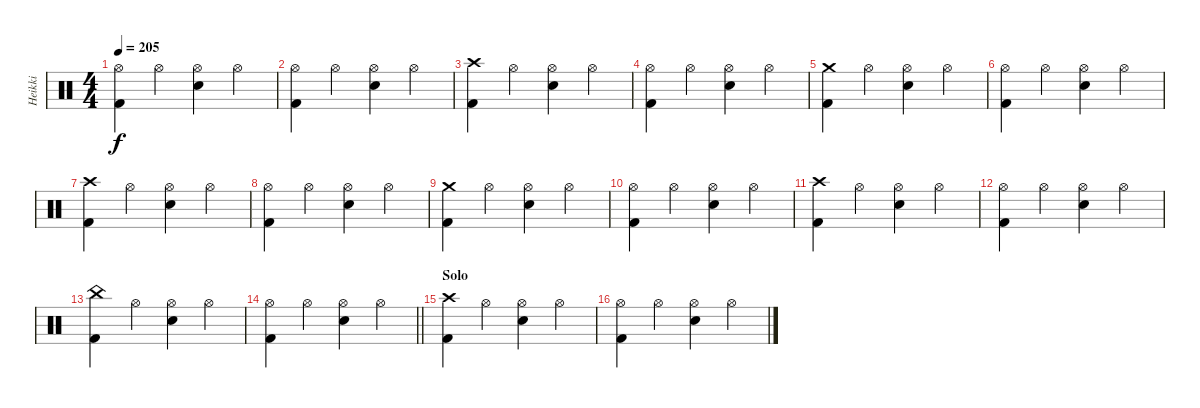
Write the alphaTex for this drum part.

\track ("Heikki" "Heikki") {instrument percussion}
\staff {score}
\articulation defaults
\ts (4 4)
\tempo 205
\clef neutral
\ks c
("Hi-Hat (open)" "Kick (hit) 2").4{dy f} "Hi-Hat (open)".4 ("Hi-Hat (open)" "Electric Snare (hit)").4 "Hi-Hat (open)".4 |
("Hi-Hat (open)" "Kick (hit) 2").4 "Hi-Hat (open)".4 ("Hi-Hat (open)" "Electric Snare (hit)").4 "Hi-Hat (open)".4 |
("Crash high (hit)" "Kick (hit) 2").4 "Hi-Hat (open)".4 ("Hi-Hat (open)" "Electric Snare (hit)").4 "Hi-Hat (open)".4 |
("Hi-Hat (open)" "Kick (hit) 2").4 "Hi-Hat (open)".4 ("Hi-Hat (open)" "Electric Snare (hit)").4 "Hi-Hat (open)".4 |
("Crash medium (hit)" "Kick (hit) 2").4 "Hi-Hat (open)".4 ("Hi-Hat (open)" "Electric Snare (hit)").4 "Hi-Hat (open)".4 |
("Hi-Hat (open)" "Kick (hit) 2").4 "Hi-Hat (open)".4 ("Hi-Hat (open)" "Electric Snare (hit)").4 "Hi-Hat (open)".4 |
("Crash high (hit)" "Kick (hit) 2").4 "Hi-Hat (open)".4 ("Hi-Hat (open)" "Electric Snare (hit)").4 "Hi-Hat (open)".4 |
("Hi-Hat (open)" "Kick (hit) 2").4 "Hi-Hat (open)".4 ("Hi-Hat (open)" "Electric Snare (hit)").4 "Hi-Hat (open)".4 |
("Crash medium (hit)" "Kick (hit) 2").4 "Hi-Hat (open)".4 ("Hi-Hat (open)" "Electric Snare (hit)").4 "Hi-Hat (open)".4 |
("Hi-Hat (open)" "Kick (hit) 2").4 "Hi-Hat (open)".4 ("Hi-Hat (open)" "Electric Snare (hit)").4 "Hi-Hat (open)".4 |
("Crash high (hit)" "Kick (hit) 2").4 "Hi-Hat (open)".4 ("Hi-Hat (open)" "Electric Snare (hit)").4 "Hi-Hat (open)".4 |
("Hi-Hat (open)" "Kick (hit) 2").4 "Hi-Hat (open)".4 ("Hi-Hat (open)" "Electric Snare (hit)").4 "Hi-Hat (open)".4 |
("China (hit)" "Kick (hit) 2").4 "Hi-Hat (open)".4 ("Hi-Hat (open)" "Electric Snare (hit)").4 "Hi-Hat (open)".4 |
\barLineRight lightlight
("Hi-Hat (open)" "Kick (hit) 2").4 "Hi-Hat (open)".4 ("Hi-Hat (open)" "Electric Snare (hit)").4 "Hi-Hat (open)".4 |
\section ("" "Solo")
("Crash high (hit)" "Kick (hit) 2").4 "Hi-Hat (open)".4 ("Hi-Hat (open)" "Electric Snare (hit)").4 "Hi-Hat (open)".4 |
("Hi-Hat (open)" "Kick (hit) 2").4 "Hi-Hat (open)".4 ("Hi-Hat (open)" "Electric Snare (hit)").4 "Hi-Hat (open)".4
